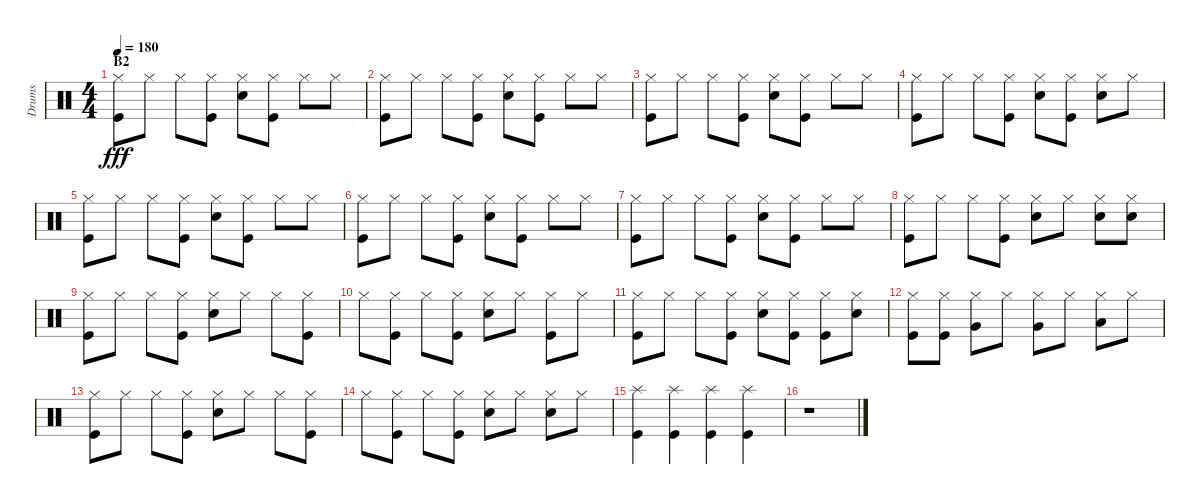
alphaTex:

\track ("Drums" "Drums") {instrument percussion}
\staff {score}
\articulation defaults
\ts (4 4)
\section ("" "B2")
\tempo 180
\clef neutral
\ks c
("Hi-Hat (closed)" "Kick (hit)").8{dy fff} "Hi-Hat (closed)".8 "Hi-Hat (closed)".8 ("Hi-Hat (closed)" "Kick (hit)").8 ("Hi-Hat (closed)" "Snare (hit) 2").8 ("Hi-Hat (closed)" "Kick (hit)").8 "Hi-Hat (closed)".8 "Hi-Hat (closed)".8 |
("Hi-Hat (closed)" "Kick (hit)").8 "Hi-Hat (closed)".8 "Hi-Hat (closed)".8 ("Hi-Hat (closed)" "Kick (hit)").8 ("Hi-Hat (closed)" "Snare (hit) 2").8 ("Hi-Hat (closed)" "Kick (hit)").8 "Hi-Hat (closed)".8 "Hi-Hat (closed)".8 |
("Hi-Hat (closed)" "Kick (hit)").8 "Hi-Hat (closed)".8 "Hi-Hat (closed)".8 ("Hi-Hat (closed)" "Kick (hit)").8 ("Hi-Hat (closed)" "Snare (hit) 2").8 ("Hi-Hat (closed)" "Kick (hit)").8 "Hi-Hat (closed)".8 "Hi-Hat (closed)".8 |
("Hi-Hat (closed)" "Kick (hit)").8 "Hi-Hat (closed)".8 "Hi-Hat (closed)".8 ("Hi-Hat (closed)" "Kick (hit)").8 ("Hi-Hat (closed)" "Snare (hit) 2").8 ("Hi-Hat (closed)" "Kick (hit)").8 ("Hi-Hat (closed)" "Snare (hit) 2").8 "Hi-Hat (closed)".8 |
("Hi-Hat (closed)" "Kick (hit)").8 "Hi-Hat (closed)".8 "Hi-Hat (closed)".8 ("Hi-Hat (closed)" "Kick (hit)").8 ("Hi-Hat (closed)" "Snare (hit) 2").8 ("Hi-Hat (closed)" "Kick (hit)").8 "Hi-Hat (closed)".8 "Hi-Hat (closed)".8 |
("Hi-Hat (closed)" "Kick (hit)").8 "Hi-Hat (closed)".8 "Hi-Hat (closed)".8 ("Hi-Hat (closed)" "Kick (hit)").8 ("Hi-Hat (closed)" "Snare (hit) 2").8 ("Hi-Hat (closed)" "Kick (hit)").8 "Hi-Hat (closed)".8 "Hi-Hat (closed)".8 |
("Hi-Hat (closed)" "Kick (hit)").8 "Hi-Hat (closed)".8 "Hi-Hat (closed)".8 ("Hi-Hat (closed)" "Kick (hit)").8 ("Hi-Hat (closed)" "Snare (hit) 2").8 ("Hi-Hat (closed)" "Kick (hit)").8 "Hi-Hat (closed)".8 "Hi-Hat (closed)".8 |
("Hi-Hat (closed)" "Kick (hit)").8 "Hi-Hat (closed)".8 "Hi-Hat (closed)".8 ("Hi-Hat (closed)" "Kick (hit)").8 ("Hi-Hat (closed)" "Snare (hit) 2").8 "Hi-Hat (closed)".8 ("Hi-Hat (closed)" "Snare (hit) 2").8 ("Hi-Hat (closed)" "Snare (hit) 2").8 |
("Hi-Hat (closed)" "Kick (hit)").8 "Hi-Hat (closed)".8 "Hi-Hat (closed)".8 ("Hi-Hat (closed)" "Kick (hit)").8 ("Hi-Hat (closed)" "Snare (hit) 2").8 "Hi-Hat (closed)".8 "Hi-Hat (closed)".8 ("Hi-Hat (closed)" "Kick (hit)").8 |
"Hi-Hat (closed)".8 ("Hi-Hat (closed)" "Kick (hit)").8 "Hi-Hat (closed)".8 ("Hi-Hat (closed)" "Kick (hit)").8 ("Hi-Hat (closed)" "Snare (hit) 2").8 "Hi-Hat (closed)".8 ("Hi-Hat (closed)" "Kick (hit)").8 "Hi-Hat (closed)".8 |
("Hi-Hat (closed)" "Kick (hit)").8 "Hi-Hat (closed)".8 "Hi-Hat (closed)".8 ("Hi-Hat (closed)" "Kick (hit)").8 ("Hi-Hat (closed)" "Snare (hit) 2").8 ("Hi-Hat (closed)" "Kick (hit)").8 ("Hi-Hat (closed)" "Kick (hit)").8 ("Hi-Hat (closed)" "Snare (hit) 2").8 |
("Hi-Hat (closed)" "Kick (hit)").8 ("Hi-Hat (closed)" "Kick (hit)").8 ("Hi-Hat (closed)" "Very Low Tom (hit)").8 "Hi-Hat (closed)".8 ("Hi-Hat (closed)" "Very Low Tom (hit)").8 "Hi-Hat (closed)".8 ("Hi-Hat (closed)" "Low Floor Tom (hit)").8 "Hi-Hat (closed)".8 |
("Hi-Hat (closed)" "Kick (hit)").8 "Hi-Hat (closed)".8 "Hi-Hat (closed)".8 ("Hi-Hat (closed)" "Kick (hit)").8 ("Hi-Hat (closed)" "Snare (hit) 2").8 "Hi-Hat (closed)".8 "Hi-Hat (closed)".8 ("Hi-Hat (closed)" "Kick (hit)").8 |
"Hi-Hat (closed)".8 ("Hi-Hat (closed)" "Kick (hit)").8 "Hi-Hat (closed)".8 ("Hi-Hat (closed)" "Kick (hit)").8 ("Hi-Hat (closed)" "Snare (hit) 2").8 "Hi-Hat (closed)".8 ("Hi-Hat (closed)" "Snare (hit) 2").8 "Hi-Hat (closed)".8 |
("Splash (hit)" "Kick (hit)").4 ("Splash (hit)" "Kick (hit)").4 ("Splash (hit)" "Kick (hit)").4 ("Splash (hit)" "Kick (hit)").4 |
r.1
